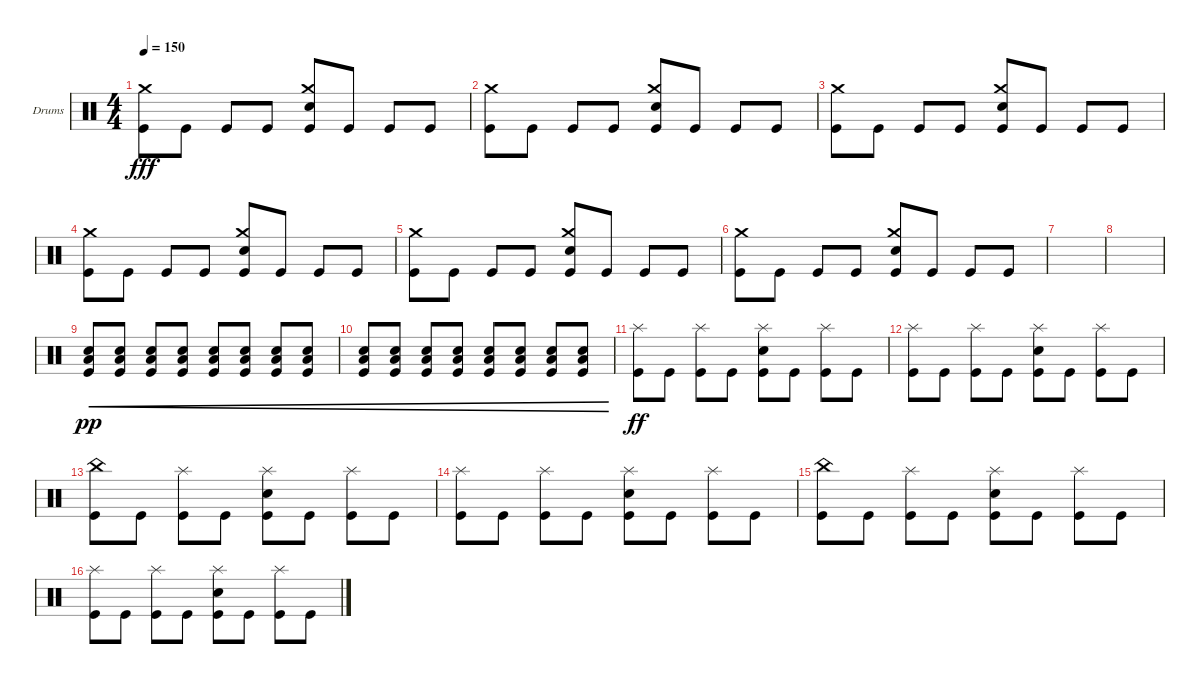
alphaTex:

\bracketExtendMode groupsimilarinstruments
\firstSystemTrackNameOrientation horizontal
\otherSystemsTrackNameOrientation horizontal
\track ("Corey" "Drums") {instrument percussion}
\staff {score}
\articulation defaults
\ts (4 4)
\tempo 150
\clef neutral
\ks c
("Kick (hit)" "Crash medium (hit)").8{dy fff} "Kick (hit)".8 "Kick (hit)".8 "Kick (hit)".8 ("Kick (hit)" "Snare (hit) 2" "Crash medium (hit)").8 "Kick (hit)".8 "Kick (hit)".8 "Kick (hit)".8 |
("Kick (hit)" "Crash medium (hit)").8 "Kick (hit)".8 "Kick (hit)".8 "Kick (hit)".8 ("Kick (hit)" "Snare (hit) 2" "Crash medium (hit)").8 "Kick (hit)".8 "Kick (hit)".8 "Kick (hit)".8 |
("Kick (hit)" "Crash medium (hit)").8 "Kick (hit)".8 "Kick (hit)".8 "Kick (hit)".8 ("Kick (hit)" "Snare (hit) 2" "Crash medium (hit)").8 "Kick (hit)".8 "Kick (hit)".8 "Kick (hit)".8 |
("Kick (hit)" "Crash medium (hit)").8 "Kick (hit)".8 "Kick (hit)".8 "Kick (hit)".8 ("Kick (hit)" "Snare (hit) 2" "Crash medium (hit)").8 "Kick (hit)".8 "Kick (hit)".8 "Kick (hit)".8 |
("Kick (hit)" "Crash medium (hit)").8 "Kick (hit)".8 "Kick (hit)".8 "Kick (hit)".8 ("Kick (hit)" "Snare (hit) 2" "Crash medium (hit)").8 "Kick (hit)".8 "Kick (hit)".8 "Kick (hit)".8 |
("Kick (hit)" "Crash medium (hit)").8 "Kick (hit)".8 "Kick (hit)".8 "Kick (hit)".8 ("Kick (hit)" "Snare (hit) 2" "Crash medium (hit)").8 "Kick (hit)".8 "Kick (hit)".8 "Kick (hit)".8 |
|
|
("Snare (hit) 2" "Kick (hit)" "Low Tom (hit)").8{cre dy pp} ("Snare (hit) 2" "Kick (hit)" "Low Tom (hit)").8{cre} ("Snare (hit) 2" "Kick (hit)" "Low Tom (hit)").8{cre} ("Snare (hit) 2" "Kick (hit)" "Low Tom (hit)").8{cre} ("Snare (hit) 2" "Kick (hit)" "Low Tom (hit)").8{cre} ("Snare (hit) 2" "Kick (hit)" "Low Tom (hit)").8{cre} ("Snare (hit) 2" "Kick (hit)" "Low Tom (hit)").8{cre} ("Snare (hit) 2" "Kick (hit)" "Low Tom (hit)").8{cre} |
("Snare (hit) 2" "Kick (hit)" "Low Tom (hit)").8{cre} ("Snare (hit) 2" "Kick (hit)" "Low Tom (hit)").8{cre} ("Snare (hit) 2" "Kick (hit)" "Low Tom (hit)").8{cre} ("Snare (hit) 2" "Kick (hit)" "Low Tom (hit)").8{cre} ("Snare (hit) 2" "Kick (hit)" "Low Tom (hit)").8{cre} ("Snare (hit) 2" "Kick (hit)" "Low Tom (hit)").8{cre} ("Snare (hit) 2" "Kick (hit)" "Low Tom (hit)").8{cre} ("Snare (hit) 2" "Kick (hit)" "Low Tom (hit)").8{cre} |
("Kick (hit)" "Splash (hit)").8{dy ff} "Kick (hit)".8 ("Kick (hit)" "Splash (hit)").8 "Kick (hit)".8 ("Kick (hit)" "Snare (hit) 2" "Splash (hit)").8 "Kick (hit)".8 ("Kick (hit)" "Splash (hit)").8 "Kick (hit)".8 |
("Kick (hit)" "Splash (hit)").8 "Kick (hit)".8 ("Kick (hit)" "Splash (hit)").8 "Kick (hit)".8 ("Kick (hit)" "Snare (hit) 2" "Splash (hit)").8 "Kick (hit)".8 ("Kick (hit)" "Splash (hit)").8 "Kick (hit)".8 |
("Kick (hit)" "China (hit)").8 "Kick (hit)".8 ("Kick (hit)" "Splash (hit)").8 "Kick (hit)".8 ("Kick (hit)" "Snare (hit) 2" "Splash (hit)").8 "Kick (hit)".8 ("Kick (hit)" "Splash (hit)").8 "Kick (hit)".8 |
("Kick (hit)" "Splash (hit)").8 "Kick (hit)".8 ("Kick (hit)" "Splash (hit)").8 "Kick (hit)".8 ("Kick (hit)" "Snare (hit) 2" "Splash (hit)").8 "Kick (hit)".8 ("Kick (hit)" "Splash (hit)").8 "Kick (hit)".8 |
("Kick (hit)" "China (hit)").8 "Kick (hit)".8 ("Kick (hit)" "Splash (hit)").8 "Kick (hit)".8 ("Kick (hit)" "Snare (hit) 2" "Splash (hit)").8 "Kick (hit)".8 ("Kick (hit)" "Splash (hit)").8 "Kick (hit)".8 |
("Kick (hit)" "Splash (hit)").8 "Kick (hit)".8 ("Kick (hit)" "Splash (hit)").8 "Kick (hit)".8 ("Kick (hit)" "Snare (hit) 2" "Splash (hit)").8 "Kick (hit)".8 ("Kick (hit)" "Splash (hit)").8 "Kick (hit)".8
